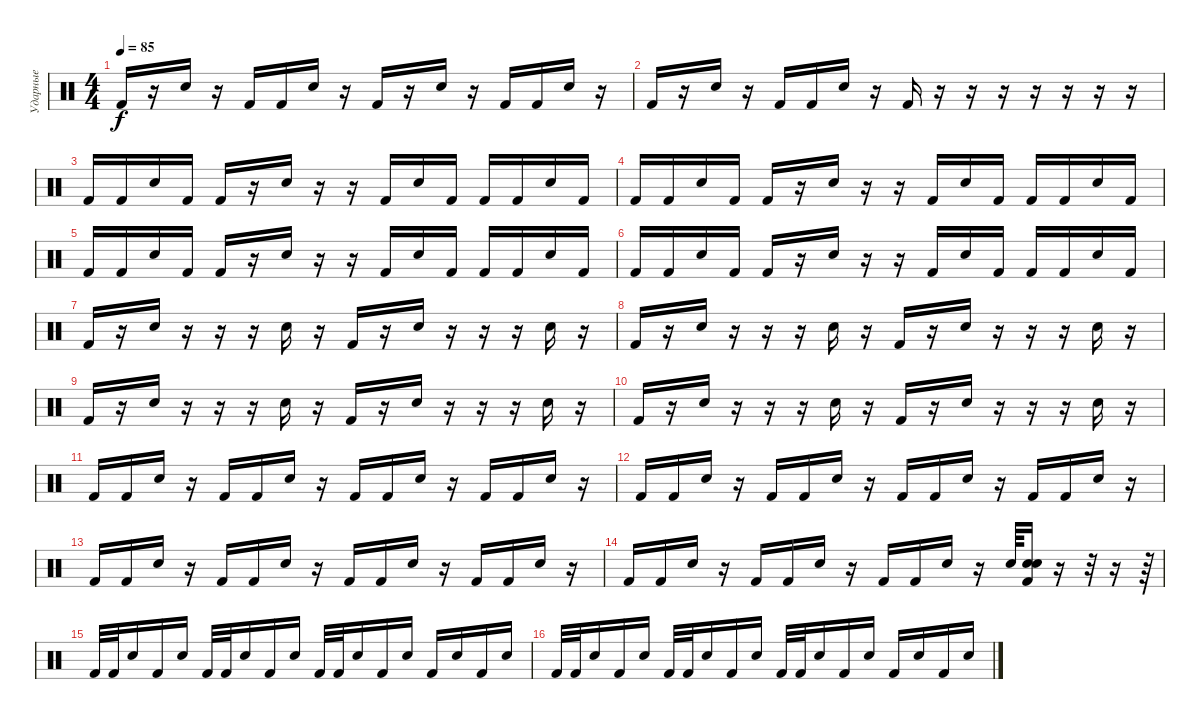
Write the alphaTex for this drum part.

\track ("Ударные" "Ударные") {instrument percussion}
\staff {score}
\articulation defaults
\ts (4 4)
\tempo 85
\clef neutral
\ks c "Kick (hit) 2".16{dy f}
r.16 "Electric Snare (hit)".16 r.16 "Kick (hit) 2".16 "Kick (hit) 2".16 "Electric Snare (hit)".16 r.16 "Kick (hit) 2".16 r.16 "Electric Snare (hit)".16 r.16 "Kick (hit) 2".16 "Kick (hit) 2".16 "Electric Snare (hit)".16 r.16 |
"Kick (hit) 2".16 r.16 "Electric Snare (hit)".16 r.16 "Kick (hit) 2".16 "Kick (hit) 2".16 "Electric Snare (hit)".16 r.16 "Kick (hit) 2".16 r.16 r.16 r.16 r.16 r.16 r.16 r.16 |
"Kick (hit) 2".16 "Kick (hit) 2".16 "Electric Snare (hit)".16 "Kick (hit) 2".16 "Kick (hit) 2".16 r.16 "Electric Snare (hit)".16 r.16 r.16 "Kick (hit) 2".16 "Electric Snare (hit)".16 "Kick (hit) 2".16 "Kick (hit) 2".16 "Kick (hit) 2".16 "Electric Snare (hit)".16 "Kick (hit) 2".16 |
"Kick (hit) 2".16 "Kick (hit) 2".16 "Electric Snare (hit)".16 "Kick (hit) 2".16 "Kick (hit) 2".16 r.16 "Electric Snare (hit)".16 r.16 r.16 "Kick (hit) 2".16 "Electric Snare (hit)".16 "Kick (hit) 2".16 "Kick (hit) 2".16 "Kick (hit) 2".16 "Electric Snare (hit)".16 "Kick (hit) 2".16 |
"Kick (hit) 2".16 "Kick (hit) 2".16 "Electric Snare (hit)".16 "Kick (hit) 2".16 "Kick (hit) 2".16 r.16 "Electric Snare (hit)".16 r.16 r.16 "Kick (hit) 2".16 "Electric Snare (hit)".16 "Kick (hit) 2".16 "Kick (hit) 2".16 "Kick (hit) 2".16 "Electric Snare (hit)".16 "Kick (hit) 2".16 |
"Kick (hit) 2".16 "Kick (hit) 2".16 "Electric Snare (hit)".16 "Kick (hit) 2".16 "Kick (hit) 2".16 r.16 "Electric Snare (hit)".16 r.16 r.16 "Kick (hit) 2".16 "Electric Snare (hit)".16 "Kick (hit) 2".16 "Kick (hit) 2".16 "Kick (hit) 2".16 "Electric Snare (hit)".16 "Kick (hit) 2".16 |
"Kick (hit) 2".16 r.16 "Electric Snare (hit)".16 r.16 r.16 r.16 "Electric Snare (hit)".16 r.16 "Kick (hit) 2".16 r.16 "Electric Snare (hit)".16 r.16 r.16 r.16 "Electric Snare (hit)".16 r.16 |
"Kick (hit) 2".16 r.16 "Electric Snare (hit)".16 r.16 r.16 r.16 "Electric Snare (hit)".16 r.16 "Kick (hit) 2".16 r.16 "Electric Snare (hit)".16 r.16 r.16 r.16 "Electric Snare (hit)".16 r.16 |
"Kick (hit) 2".16 r.16 "Electric Snare (hit)".16 r.16 r.16 r.16 "Electric Snare (hit)".16 r.16 "Kick (hit) 2".16 r.16 "Electric Snare (hit)".16 r.16 r.16 r.16 "Electric Snare (hit)".16 r.16 |
"Kick (hit) 2".16 r.16 "Electric Snare (hit)".16 r.16 r.16 r.16 "Electric Snare (hit)".16 r.16 "Kick (hit) 2".16 r.16 "Electric Snare (hit)".16 r.16 r.16 r.16 "Electric Snare (hit)".16 r.16 |
"Kick (hit) 2".16 "Kick (hit) 2".16 "Electric Snare (hit)".16 r.16 "Kick (hit) 2".16 "Kick (hit) 2".16 "Electric Snare (hit)".16 r.16 "Kick (hit) 2".16 "Kick (hit) 2".16 "Electric Snare (hit)".16 r.16 "Kick (hit) 2".16 "Kick (hit) 2".16 "Electric Snare (hit)".16 r.16 |
"Kick (hit) 2".16 "Kick (hit) 2".16 "Electric Snare (hit)".16 r.16 "Kick (hit) 2".16 "Kick (hit) 2".16 "Electric Snare (hit)".16 r.16 "Kick (hit) 2".16 "Kick (hit) 2".16 "Electric Snare (hit)".16 r.16 "Kick (hit) 2".16 "Kick (hit) 2".16 "Electric Snare (hit)".16 r.16 |
"Kick (hit) 2".16 "Kick (hit) 2".16 "Electric Snare (hit)".16 r.16 "Kick (hit) 2".16 "Kick (hit) 2".16 "Electric Snare (hit)".16 r.16 "Kick (hit) 2".16 "Kick (hit) 2".16 "Electric Snare (hit)".16 r.16 "Kick (hit) 2".16 "Kick (hit) 2".16 "Electric Snare (hit)".16 r.16 |
"Kick (hit) 2".16 "Kick (hit) 2".16 "Electric Snare (hit)".16 r.16 "Kick (hit) 2".16 "Kick (hit) 2".16 "Electric Snare (hit)".16 r.16 "Kick (hit) 2".16 "Kick (hit) 2".16 "Electric Snare (hit)".16 r.16 "Electric Snare (hit)".64 ("Electric Snare (hit)" "Kick (hit) 2" "Electric Snare (hit)").16 r.16 r.32 r.16 r.64 |
"Kick (hit) 2".32 "Kick (hit) 2".32 "Electric Snare (hit)".16 "Kick (hit) 2".16 "Electric Snare (hit)".16 "Kick (hit) 2".32 "Kick (hit) 2".32 "Electric Snare (hit)".16 "Kick (hit) 2".16 "Electric Snare (hit)".16 "Kick (hit) 2".32 "Kick (hit) 2".32 "Electric Snare (hit)".16 "Kick (hit) 2".16 "Electric Snare (hit)".16 "Kick (hit) 2".16 "Electric Snare (hit)".16 "Kick (hit) 2".16 "Electric Snare (hit)".16 |
"Kick (hit) 2".32 "Kick (hit) 2".32 "Electric Snare (hit)".16 "Kick (hit) 2".16 "Electric Snare (hit)".16 "Kick (hit) 2".32 "Kick (hit) 2".32 "Electric Snare (hit)".16 "Kick (hit) 2".16 "Electric Snare (hit)".16 "Kick (hit) 2".32 "Kick (hit) 2".32 "Electric Snare (hit)".16 "Kick (hit) 2".16 "Electric Snare (hit)".16 "Kick (hit) 2".16 "Electric Snare (hit)".16 "Kick (hit) 2".16 "Electric Snare (hit)".16
